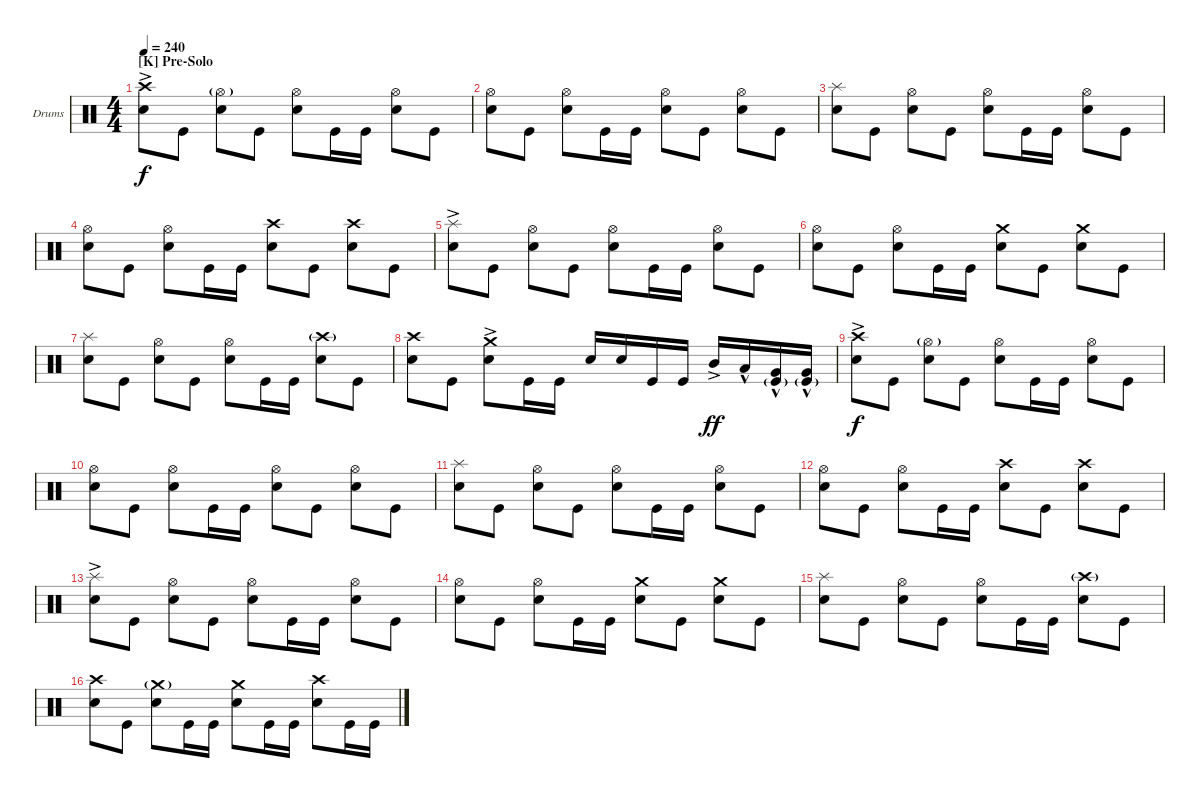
\defaultSystemsLayout 4
\bracketExtendMode groupsimilarinstruments
\firstSystemTrackNameOrientation horizontal
\otherSystemsTrackNameOrientation horizontal
\track ("Drumkit" "Drums") {instrument percussion}
\staff {score}
\articulation defaults
\ts (4 4)
\section ("K" "Pre-Solo")
\tempo 240
\clef neutral
\ks c
("Crash high (hit)"{ac} "Snare (hit) 2").8{dy f} "Kick (hit)".8 ("Snare (hit) 2" "Hi-Hat (open)"{g}).8 "Kick (hit)".8 ("Snare (hit) 2" "Hi-Hat (open)").8 "Kick (hit)".16 "Kick (hit)".16 ("Snare (hit) 2" "Hi-Hat (open)").8 "Kick (hit)".8 |
("Snare (hit) 2" "Hi-Hat (open)").8 "Kick (hit)".8 ("Snare (hit) 2" "Hi-Hat (open)").8 "Kick (hit)".16 "Kick (hit)".16 ("Snare (hit) 2" "Hi-Hat (open)").8 "Kick (hit)".8 ("Snare (hit) 2" "Hi-Hat (open)").8 "Kick (hit)".8 |
("Snare (hit) 2" "Splash (hit)").8 "Kick (hit)".8 ("Snare (hit) 2" "Hi-Hat (open)").8 "Kick (hit)".8 ("Snare (hit) 2" "Hi-Hat (open)").8 "Kick (hit)".16 "Kick (hit)".16 ("Snare (hit) 2" "Hi-Hat (open)").8 "Kick (hit)".8 |
("Snare (hit) 2" "Hi-Hat (open)").8 "Kick (hit)".8 ("Snare (hit) 2" "Hi-Hat (open)").8 "Kick (hit)".16 "Kick (hit)".16 ("Snare (hit) 2" "Crash high (hit)").8 "Kick (hit)".8 ("Snare (hit) 2" "Crash high (hit)").8 "Kick (hit)".8 |
("Snare (hit) 2" "Splash (hit)"{ac}).8 "Kick (hit)".8 ("Snare (hit) 2" "Hi-Hat (open)").8 "Kick (hit)".8 ("Snare (hit) 2" "Hi-Hat (open)").8 "Kick (hit)".16 "Kick (hit)".16 ("Snare (hit) 2" "Hi-Hat (open)").8 "Kick (hit)".8 |
("Snare (hit) 2" "Hi-Hat (open)").8 "Kick (hit)".8 ("Snare (hit) 2" "Hi-Hat (open)").8 "Kick (hit)".16 "Kick (hit)".16 ("Snare (hit) 2" "Crash medium (hit)").8 "Kick (hit)".8 ("Snare (hit) 2" "Crash medium (hit)").8 "Kick (hit)".8 |
("Snare (hit) 2" "Splash (hit)").8 "Kick (hit)".8 ("Snare (hit) 2" "Hi-Hat (open)").8 "Kick (hit)".8 ("Snare (hit) 2" "Hi-Hat (open)").8 "Kick (hit)".16 "Kick (hit)".16 ("Snare (hit) 2" "Crash high (hit)"{g}).8 "Kick (hit)".8 |
("Snare (hit) 2" "Crash high (hit)").8 "Kick (hit)".8 ("Snare (hit) 2" "Crash medium (hit)"{ac}).8 "Kick (hit)".16 "Kick (hit)".16 "Snare (hit) 2".16 "Snare (hit) 2".16 "Kick (hit)".16 "Kick (hit)".16 "Mid Tom (hit)"{ac}.16{dy ff} "Low Tom (hit)"{hac}.16 ("Kick (hit)"{g} "Very Low Tom (hit)"{hac}).16 ("Kick (hit)"{g} "Very Low Tom (hit)"{hac}).16 |
("Crash high (hit)"{ac} "Snare (hit) 2").8{dy f} "Kick (hit)".8 ("Snare (hit) 2" "Hi-Hat (open)"{g}).8 "Kick (hit)".8 ("Snare (hit) 2" "Hi-Hat (open)").8 "Kick (hit)".16 "Kick (hit)".16 ("Snare (hit) 2" "Hi-Hat (open)").8 "Kick (hit)".8 |
("Snare (hit) 2" "Hi-Hat (open)").8 "Kick (hit)".8 ("Snare (hit) 2" "Hi-Hat (open)").8 "Kick (hit)".16 "Kick (hit)".16 ("Snare (hit) 2" "Hi-Hat (open)").8 "Kick (hit)".8 ("Snare (hit) 2" "Hi-Hat (open)").8 "Kick (hit)".8 |
("Snare (hit) 2" "Splash (hit)").8 "Kick (hit)".8 ("Snare (hit) 2" "Hi-Hat (open)").8 "Kick (hit)".8 ("Snare (hit) 2" "Hi-Hat (open)").8 "Kick (hit)".16 "Kick (hit)".16 ("Snare (hit) 2" "Hi-Hat (open)").8 "Kick (hit)".8 |
("Snare (hit) 2" "Hi-Hat (open)").8 "Kick (hit)".8 ("Snare (hit) 2" "Hi-Hat (open)").8 "Kick (hit)".16 "Kick (hit)".16 ("Snare (hit) 2" "Crash high (hit)").8 "Kick (hit)".8 ("Snare (hit) 2" "Crash high (hit)").8 "Kick (hit)".8 |
("Snare (hit) 2" "Splash (hit)"{ac}).8 "Kick (hit)".8 ("Snare (hit) 2" "Hi-Hat (open)").8 "Kick (hit)".8 ("Snare (hit) 2" "Hi-Hat (open)").8 "Kick (hit)".16 "Kick (hit)".16 ("Snare (hit) 2" "Hi-Hat (open)").8 "Kick (hit)".8 |
("Snare (hit) 2" "Hi-Hat (open)").8 "Kick (hit)".8 ("Snare (hit) 2" "Hi-Hat (open)").8 "Kick (hit)".16 "Kick (hit)".16 ("Snare (hit) 2" "Crash medium (hit)").8 "Kick (hit)".8 ("Snare (hit) 2" "Crash medium (hit)").8 "Kick (hit)".8 |
("Snare (hit) 2" "Splash (hit)").8 "Kick (hit)".8 ("Snare (hit) 2" "Hi-Hat (open)").8 "Kick (hit)".8 ("Snare (hit) 2" "Hi-Hat (open)").8 "Kick (hit)".16 "Kick (hit)".16 ("Snare (hit) 2" "Crash high (hit)"{g}).8 "Kick (hit)".8 |
("Snare (hit) 2" "Crash high (hit)").8 "Kick (hit)".8 ("Snare (hit) 2" "Crash medium (hit)"{g}).8 "Kick (hit)".16 "Kick (hit)".16 ("Snare (hit) 2" "Crash medium (hit)").8 "Kick (hit)".16 "Kick (hit)".16 ("Snare (hit) 2" "Crash high (hit)").8 "Kick (hit)".16 "Kick (hit)".16
